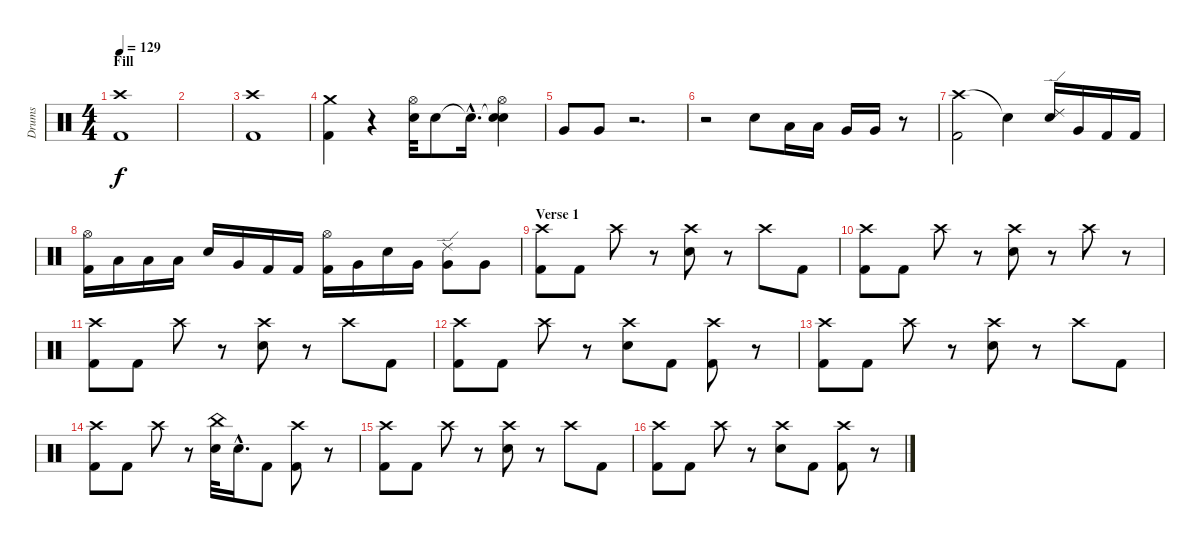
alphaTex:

\track ("Drums" "Drums") {instrument percussion}
\staff {score}
\articulation defaults
\ts (4 4)
\section ("" "Fill")
\tempo 129
\clef neutral
\ks c
("Crash high (hit)" "Kick (hit) 2").1{dy f} |
|
("Crash high (hit)" "Kick (hit) 2").1 |
("Crash medium (hit)" "Kick (hit) 2").4 r.4 ("Hi-Hat (open)" "Snare (hit) 2").32 "Snare (hit) 2".8 "Snare (hit)"{hac t}.16{d} ("Snare (hit)"{t} "Hi-Hat (open)" "Snare (hit) 2").4 |
"Very Low Tom (hit)".8 "Very Low Tom (hit)".8 r.2{d} |
r.2 "Snare (hit) 2".8 "Low Tom (hit)".16 "Low Tom (hit)".16 "Very Low Tom (hit)".16 "Very Low Tom (hit)".16 r.8 |
("Crash high (hit)" "Kick (hit) 2").2 "Snare (hit)"{t}.4 ("Ride (edge) 2" "Snare (hit) 2").16 "Very Low Tom (hit)".16 "Kick (hit) 2".16 "Kick (hit) 2".16 |
("Hi-Hat (open)" "Kick (hit) 2").16 "Low Tom (hit)".16 "Low Tom (hit)".16 "Low Tom (hit)".16 "Snare (hit) 2".16 "Very Low Tom (hit)".16 "Kick (hit) 2".16 "Kick (hit) 2".16 ("Hi-Hat (open)" "Kick (hit) 2").16 "Very Low Tom (hit)".16 "Snare (hit) 2".16 "Very Low Tom (hit)".16 ("Ride (edge) 2" "Very Low Tom (hit)").8 "Very Low Tom (hit)".8 |
\section ("" "Verse 1")
("Crash high (hit)" "Kick (hit) 2").8 "Kick (hit) 2".8 "Crash high (hit)".8 r.8 ("Crash high (hit)" "Snare (hit) 2").8 r.8 "Crash high (hit)".8 "Kick (hit) 2".8 |
("Crash high (hit)" "Kick (hit) 2").8 "Kick (hit) 2".8 "Crash high (hit)".8 r.8 ("Crash high (hit)" "Snare (hit) 2").8 r.8 "Crash high (hit)".8 r.8 |
("Crash high (hit)" "Kick (hit) 2").8 "Kick (hit) 2".8 "Crash high (hit)".8 r.8 ("Crash high (hit)" "Snare (hit) 2").8 r.8 "Crash high (hit)".8 "Kick (hit) 2".8 |
("Crash high (hit)" "Kick (hit) 2").8 "Kick (hit) 2".8 "Crash high (hit)".8 r.8 ("Crash high (hit)" "Snare (hit) 2").8 "Kick (hit) 2".8 ("Crash high (hit)" "Kick (hit) 2").8 r.8 |
("Crash high (hit)" "Kick (hit) 2").8 "Kick (hit) 2".8 "Crash high (hit)".8 r.8 ("Crash high (hit)" "Snare (hit) 2").8 r.8 "Crash high (hit)".8 "Kick (hit) 2".8 |
("Crash high (hit)" "Kick (hit) 2").8 "Kick (hit) 2".8 "Crash high (hit)".8 r.8 ("China (hit)" "Snare (hit) 2").32 "Snare (hit) 2"{hac}.16{d} "Kick (hit) 2".8 ("Crash high (hit)" "Kick (hit) 2").8 r.8 |
("Crash high (hit)" "Kick (hit) 2").8 "Kick (hit) 2".8 "Crash high (hit)".8 r.8 ("Crash high (hit)" "Snare (hit) 2").8 r.8 "Crash high (hit)".8 "Kick (hit) 2".8 |
("Crash high (hit)" "Kick (hit) 2").8 "Kick (hit) 2".8 "Crash high (hit)".8 r.8 ("Crash high (hit)" "Snare (hit) 2").8 "Kick (hit) 2".8 ("Crash high (hit)" "Kick (hit) 2").8 r.8
